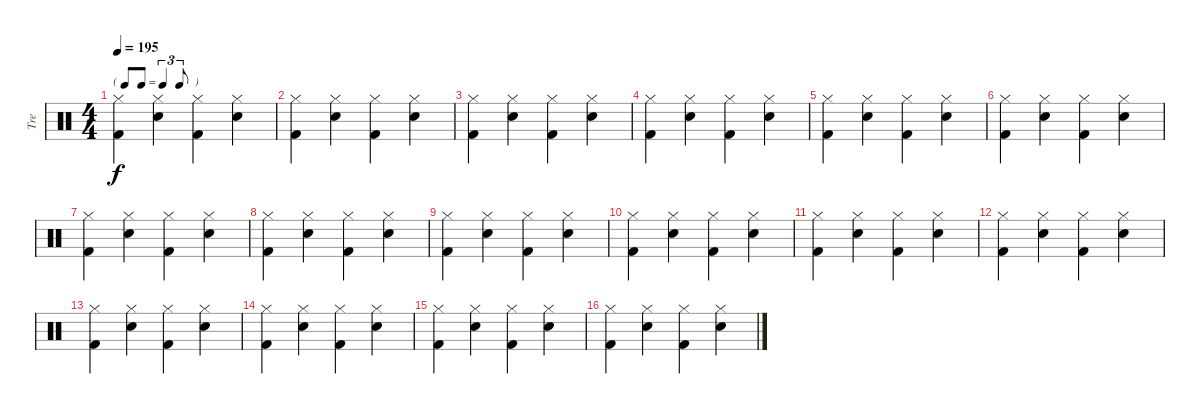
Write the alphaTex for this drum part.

\track ("Tre" "Tre") {instrument percussion}
\staff {score}
\articulation defaults
\ts (4 4)
\tf triplet8th
\tempo 195
\clef neutral
\ks c
("Hi-Hat (closed)" "Kick (hit) 2").4{dy f} ("Hi-Hat (closed)" "Snare (hit) 2").4 ("Hi-Hat (closed)" "Kick (hit) 2").4 ("Hi-Hat (closed)" "Snare (hit) 2").4 |
("Hi-Hat (closed)" "Kick (hit) 2").4 ("Hi-Hat (closed)" "Snare (hit) 2").4 ("Hi-Hat (closed)" "Kick (hit) 2").4 ("Hi-Hat (closed)" "Snare (hit) 2").4 |
("Hi-Hat (closed)" "Kick (hit) 2").4 ("Hi-Hat (closed)" "Snare (hit) 2").4 ("Hi-Hat (closed)" "Kick (hit) 2").4 ("Hi-Hat (closed)" "Snare (hit) 2").4 |
("Hi-Hat (closed)" "Kick (hit) 2").4 ("Hi-Hat (closed)" "Snare (hit) 2").4 ("Hi-Hat (closed)" "Kick (hit) 2").4 ("Hi-Hat (closed)" "Snare (hit) 2").4 |
("Hi-Hat (closed)" "Kick (hit) 2").4 ("Hi-Hat (closed)" "Snare (hit) 2").4 ("Hi-Hat (closed)" "Kick (hit) 2").4 ("Hi-Hat (closed)" "Snare (hit) 2").4 |
("Hi-Hat (closed)" "Kick (hit) 2").4 ("Hi-Hat (closed)" "Snare (hit) 2").4 ("Hi-Hat (closed)" "Kick (hit) 2").4 ("Hi-Hat (closed)" "Snare (hit) 2").4 |
("Hi-Hat (closed)" "Kick (hit) 2").4 ("Hi-Hat (closed)" "Snare (hit) 2").4 ("Hi-Hat (closed)" "Kick (hit) 2").4 ("Hi-Hat (closed)" "Snare (hit) 2").4 |
("Hi-Hat (closed)" "Kick (hit) 2").4 ("Hi-Hat (closed)" "Snare (hit) 2").4 ("Hi-Hat (closed)" "Kick (hit) 2").4 ("Hi-Hat (closed)" "Snare (hit) 2").4 |
("Hi-Hat (closed)" "Kick (hit) 2").4 ("Hi-Hat (closed)" "Snare (hit) 2").4 ("Hi-Hat (closed)" "Kick (hit) 2").4 ("Hi-Hat (closed)" "Snare (hit) 2").4 |
("Hi-Hat (closed)" "Kick (hit) 2").4 ("Hi-Hat (closed)" "Snare (hit) 2").4 ("Hi-Hat (closed)" "Kick (hit) 2").4 ("Hi-Hat (closed)" "Snare (hit) 2").4 |
("Hi-Hat (closed)" "Kick (hit) 2").4 ("Hi-Hat (closed)" "Snare (hit) 2").4 ("Hi-Hat (closed)" "Kick (hit) 2").4 ("Hi-Hat (closed)" "Snare (hit) 2").4 |
("Hi-Hat (closed)" "Kick (hit) 2").4 ("Hi-Hat (closed)" "Snare (hit) 2").4 ("Hi-Hat (closed)" "Kick (hit) 2").4 ("Hi-Hat (closed)" "Snare (hit) 2").4 |
("Hi-Hat (closed)" "Kick (hit) 2").4 ("Hi-Hat (closed)" "Snare (hit) 2").4 ("Hi-Hat (closed)" "Kick (hit) 2").4 ("Hi-Hat (closed)" "Snare (hit) 2").4 |
("Hi-Hat (closed)" "Kick (hit) 2").4 ("Hi-Hat (closed)" "Snare (hit) 2").4 ("Hi-Hat (closed)" "Kick (hit) 2").4 ("Hi-Hat (closed)" "Snare (hit) 2").4 |
("Hi-Hat (closed)" "Kick (hit) 2").4 ("Hi-Hat (closed)" "Snare (hit) 2").4 ("Hi-Hat (closed)" "Kick (hit) 2").4 ("Hi-Hat (closed)" "Snare (hit) 2").4 |
("Hi-Hat (closed)" "Kick (hit) 2").4 ("Hi-Hat (closed)" "Snare (hit) 2").4 ("Hi-Hat (closed)" "Kick (hit) 2").4 ("Hi-Hat (closed)" "Snare (hit) 2").4
